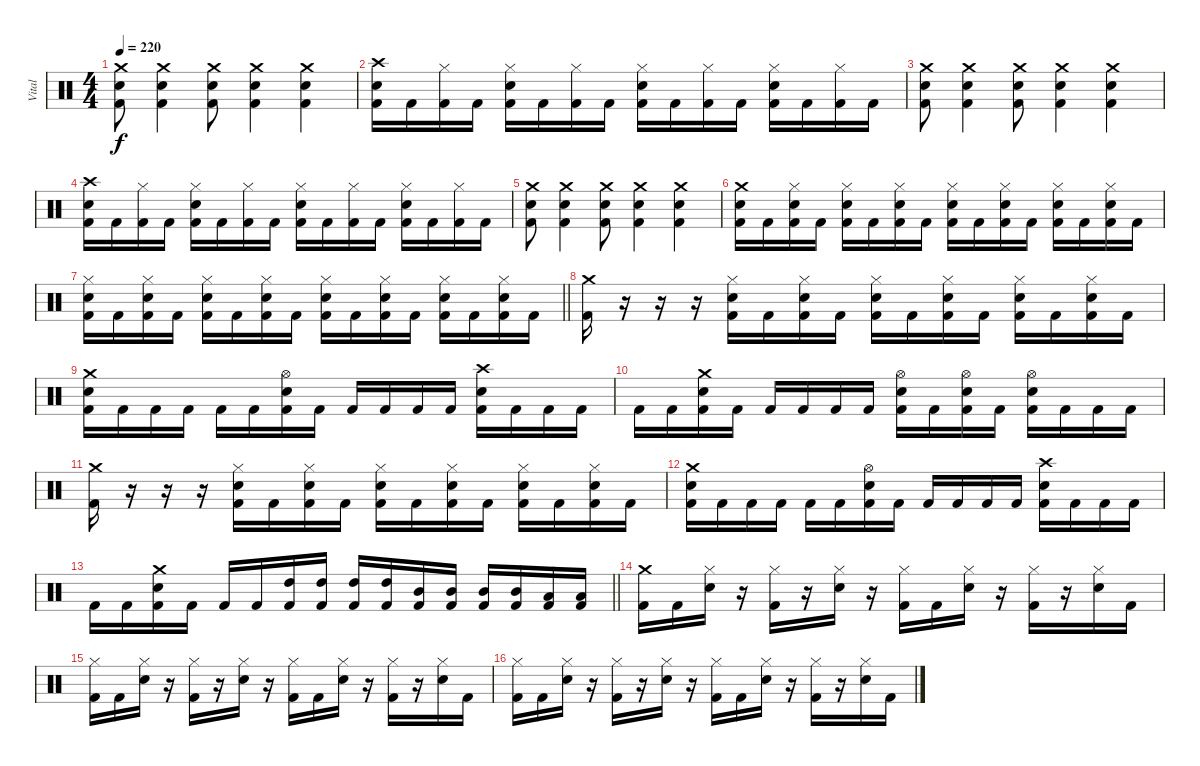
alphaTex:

\track ("Vital" "Vital") {instrument percussion}
\staff {score}
\articulation defaults
\ts (4 4)
\tempo 220
\clef neutral
\ks c
("Crash medium (hit)" "Snare (hit) 2" "Kick (hit) 2").8{dy f} ("Crash medium (hit)" "Snare (hit) 2" "Kick (hit) 2").4 ("Crash medium (hit)" "Snare (hit) 2" "Kick (hit) 2").8 ("Crash medium (hit)" "Snare (hit) 2" "Kick (hit) 2").4 ("Crash medium (hit)" "Snare (hit) 2" "Kick (hit) 2").4 |
("Crash high (hit)" "Snare (hit) 2" "Kick (hit) 2").16 "Kick (hit) 2".16 ("Hi-Hat (closed)" "Kick (hit) 2").16 "Kick (hit) 2".16 ("Hi-Hat (closed)" "Snare (hit) 2" "Kick (hit) 2").16 "Kick (hit) 2".16 ("Hi-Hat (closed)" "Kick (hit) 2").16 "Kick (hit) 2".16 ("Hi-Hat (closed)" "Snare (hit) 2" "Kick (hit) 2").16 "Kick (hit) 2".16 ("Hi-Hat (closed)" "Kick (hit) 2").16 "Kick (hit) 2".16 ("Hi-Hat (closed)" "Snare (hit) 2" "Kick (hit) 2").16 "Kick (hit) 2".16 ("Hi-Hat (closed)" "Kick (hit) 2").16 "Kick (hit) 2".16 |
("Crash medium (hit)" "Snare (hit) 2" "Kick (hit) 2").8 ("Crash medium (hit)" "Snare (hit) 2" "Kick (hit) 2").4 ("Crash medium (hit)" "Snare (hit) 2" "Kick (hit) 2").8 ("Crash medium (hit)" "Snare (hit) 2" "Kick (hit) 2").4 ("Crash medium (hit)" "Snare (hit) 2" "Kick (hit) 2").4 |
("Crash high (hit)" "Snare (hit) 2" "Kick (hit) 2").16 "Kick (hit) 2".16 ("Hi-Hat (closed)" "Kick (hit) 2").16 "Kick (hit) 2".16 ("Hi-Hat (closed)" "Snare (hit) 2" "Kick (hit) 2").16 "Kick (hit) 2".16 ("Hi-Hat (closed)" "Kick (hit) 2").16 "Kick (hit) 2".16 ("Hi-Hat (closed)" "Snare (hit) 2" "Kick (hit) 2").16 "Kick (hit) 2".16 ("Hi-Hat (closed)" "Kick (hit) 2").16 "Kick (hit) 2".16 ("Hi-Hat (closed)" "Snare (hit) 2" "Kick (hit) 2").16 "Kick (hit) 2".16 ("Hi-Hat (closed)" "Kick (hit) 2").16 "Kick (hit) 2".16 |
("Crash medium (hit)" "Snare (hit) 2" "Kick (hit) 2").8 ("Crash medium (hit)" "Snare (hit) 2" "Kick (hit) 2").4 ("Crash medium (hit)" "Snare (hit) 2" "Kick (hit) 2").8 ("Crash medium (hit)" "Snare (hit) 2" "Kick (hit) 2").4 ("Crash medium (hit)" "Snare (hit) 2" "Kick (hit) 2").4 |
("Crash medium (hit)" "Snare (hit) 2" "Kick (hit) 2").16 "Kick (hit) 2".16 ("Hi-Hat (closed)" "Snare (hit) 2" "Kick (hit) 2").16 "Kick (hit) 2".16 ("Hi-Hat (closed)" "Snare (hit) 2" "Kick (hit) 2").16 "Kick (hit) 2".16 ("Hi-Hat (closed)" "Snare (hit) 2" "Kick (hit) 2").16 "Kick (hit) 2".16 ("Hi-Hat (closed)" "Snare (hit) 2" "Kick (hit) 2").16 "Kick (hit) 2".16 ("Hi-Hat (closed)" "Snare (hit) 2" "Kick (hit) 2").16 "Kick (hit) 2".16 ("Hi-Hat (closed)" "Snare (hit) 2" "Kick (hit) 2").16 "Kick (hit) 2".16 ("Hi-Hat (closed)" "Snare (hit) 2" "Kick (hit) 2").16 "Kick (hit) 2".16 |
\barLineRight lightlight
("Hi-Hat (closed)" "Snare (hit) 2" "Kick (hit) 2").16 "Kick (hit) 2".16 ("Hi-Hat (closed)" "Snare (hit) 2" "Kick (hit) 2").16 "Kick (hit) 2".16 ("Hi-Hat (closed)" "Snare (hit) 2" "Kick (hit) 2").16 "Kick (hit) 2".16 ("Hi-Hat (closed)" "Snare (hit) 2" "Kick (hit) 2").16 "Kick (hit) 2".16 ("Hi-Hat (closed)" "Snare (hit) 2" "Kick (hit) 2").16 "Kick (hit) 2".16 ("Hi-Hat (closed)" "Snare (hit) 2" "Kick (hit) 2").16 "Kick (hit) 2".16 ("Hi-Hat (closed)" "Snare (hit) 2" "Kick (hit) 2").16 "Kick (hit) 2".16 ("Hi-Hat (closed)" "Snare (hit) 2" "Kick (hit) 2").16 "Kick (hit) 2".16 |
("Crash medium (hit)" "Kick (hit) 2").16 r.16 r.16 r.16 ("Hi-Hat (closed)" "Snare (hit) 2" "Kick (hit) 2").16 "Kick (hit) 2".16 ("Hi-Hat (closed)" "Snare (hit) 2" "Kick (hit) 2").16 "Kick (hit) 2".16 ("Hi-Hat (closed)" "Snare (hit) 2" "Kick (hit) 2").16 "Kick (hit) 2".16 ("Hi-Hat (closed)" "Snare (hit) 2" "Kick (hit) 2").16 "Kick (hit) 2".16 ("Hi-Hat (closed)" "Snare (hit) 2" "Kick (hit) 2").16 "Kick (hit) 2".16 ("Hi-Hat (closed)" "Snare (hit) 2" "Kick (hit) 2").16 "Kick (hit) 2".16 |
("Crash medium (hit)" "Snare (hit) 2" "Kick (hit) 2").16 "Kick (hit) 2".16 "Kick (hit) 2".16 "Kick (hit) 2".16 "Kick (hit) 2".16 "Kick (hit) 2".16 ("Hi-Hat (open)" "Snare (hit) 2" "Kick (hit) 2").16 "Kick (hit) 2".16 "Kick (hit) 2".16 "Kick (hit) 2".16 "Kick (hit) 2".16 "Kick (hit) 2".16 ("Crash high (hit)" "Snare (hit) 2" "Kick (hit) 2").16 "Kick (hit) 2".16 "Kick (hit) 2".16 "Kick (hit) 2".16 |
"Kick (hit) 2".16 "Kick (hit) 2".16 ("Crash medium (hit)" "Snare (hit) 2" "Kick (hit) 2").16 "Kick (hit) 2".16 "Kick (hit) 2".16 "Kick (hit) 2".16 "Kick (hit) 2".16 "Kick (hit) 2".16 ("Hi-Hat (open)" "Snare (hit) 2" "Kick (hit) 2").16 "Kick (hit) 2".16 ("Hi-Hat (open)" "Snare (hit) 2" "Kick (hit) 2").16 "Kick (hit) 2".16 ("Hi-Hat (open)" "Snare (hit) 2" "Kick (hit) 2").16 "Kick (hit) 2".16 "Kick (hit) 2".16 "Kick (hit) 2".16 |
("Crash medium (hit)" "Kick (hit) 2").16 r.16 r.16 r.16 ("Hi-Hat (closed)" "Snare (hit) 2" "Kick (hit) 2").16 "Kick (hit) 2".16 ("Hi-Hat (closed)" "Snare (hit) 2" "Kick (hit) 2").16 "Kick (hit) 2".16 ("Hi-Hat (closed)" "Snare (hit) 2" "Kick (hit) 2").16 "Kick (hit) 2".16 ("Hi-Hat (closed)" "Snare (hit) 2" "Kick (hit) 2").16 "Kick (hit) 2".16 ("Hi-Hat (closed)" "Snare (hit) 2" "Kick (hit) 2").16 "Kick (hit) 2".16 ("Hi-Hat (closed)" "Snare (hit) 2" "Kick (hit) 2").16 "Kick (hit) 2".16 |
("Crash medium (hit)" "Snare (hit) 2" "Kick (hit) 2").16 "Kick (hit) 2".16 "Kick (hit) 2".16 "Kick (hit) 2".16 "Kick (hit) 2".16 "Kick (hit) 2".16 ("Hi-Hat (open)" "Snare (hit) 2" "Kick (hit) 2").16 "Kick (hit) 2".16 "Kick (hit) 2".16 "Kick (hit) 2".16 "Kick (hit) 2".16 "Kick (hit) 2".16 ("Crash high (hit)" "Snare (hit) 2" "Kick (hit) 2").16 "Kick (hit) 2".16 "Kick (hit) 2".16 "Kick (hit) 2".16 |
\barLineRight lightlight "Kick (hit) 2".16 "Kick (hit) 2".16
("Crash medium (hit)" "Snare (hit) 2" "Kick (hit) 2").16 "Kick (hit) 2".16 "Kick (hit) 2".16 "Kick (hit) 2".16 ("High Tom (hit)" "Kick (hit) 2").16 ("High Tom (hit)" "Kick (hit) 2").16 ("High Tom (hit)" "Kick (hit) 2").16 ("High Tom (hit)" "Kick (hit) 2").16 ("Mid Tom (hit)" "Kick (hit) 2").16 ("Mid Tom (hit)" "Kick (hit) 2").16 ("Mid Tom (hit)" "Kick (hit) 2").16 ("Mid Tom (hit)" "Kick (hit) 2").16 ("Low Tom (hit)" "Kick (hit) 2").16 ("Low Tom (hit)" "Kick (hit) 2").16 |
("Crash medium (hit)" "Kick (hit) 2").16 "Kick (hit) 2".16 ("Hi-Hat (closed)" "Snare (hit) 2").16 r.16 ("Hi-Hat (closed)" "Kick (hit) 2").16 r.16 ("Hi-Hat (closed)" "Snare (hit) 2").16 r.16 ("Hi-Hat (closed)" "Kick (hit) 2").16 "Kick (hit) 2".16 ("Hi-Hat (closed)" "Snare (hit) 2").16 r.16 ("Hi-Hat (closed)" "Kick (hit) 2").16 r.16 ("Hi-Hat (closed)" "Snare (hit) 2").16 "Kick (hit) 2".16 |
("Hi-Hat (closed)" "Kick (hit) 2").16 "Kick (hit) 2".16 ("Hi-Hat (closed)" "Snare (hit) 2").16 r.16 ("Hi-Hat (closed)" "Kick (hit) 2").16 r.16 ("Hi-Hat (closed)" "Snare (hit) 2").16 r.16 ("Hi-Hat (closed)" "Kick (hit) 2").16 "Kick (hit) 2".16 ("Hi-Hat (closed)" "Snare (hit) 2").16 r.16 ("Hi-Hat (closed)" "Kick (hit) 2").16 r.16 ("Hi-Hat (closed)" "Snare (hit) 2").16 "Kick (hit) 2".16 |
("Hi-Hat (closed)" "Kick (hit) 2").16 "Kick (hit) 2".16 ("Hi-Hat (closed)" "Snare (hit) 2").16 r.16 ("Hi-Hat (closed)" "Kick (hit) 2").16 r.16 ("Hi-Hat (closed)" "Snare (hit) 2").16 r.16 ("Hi-Hat (closed)" "Kick (hit) 2").16 "Kick (hit) 2".16 ("Hi-Hat (closed)" "Snare (hit) 2").16 r.16 ("Hi-Hat (closed)" "Kick (hit) 2").16 r.16 ("Hi-Hat (closed)" "Snare (hit) 2").16 "Kick (hit) 2".16
